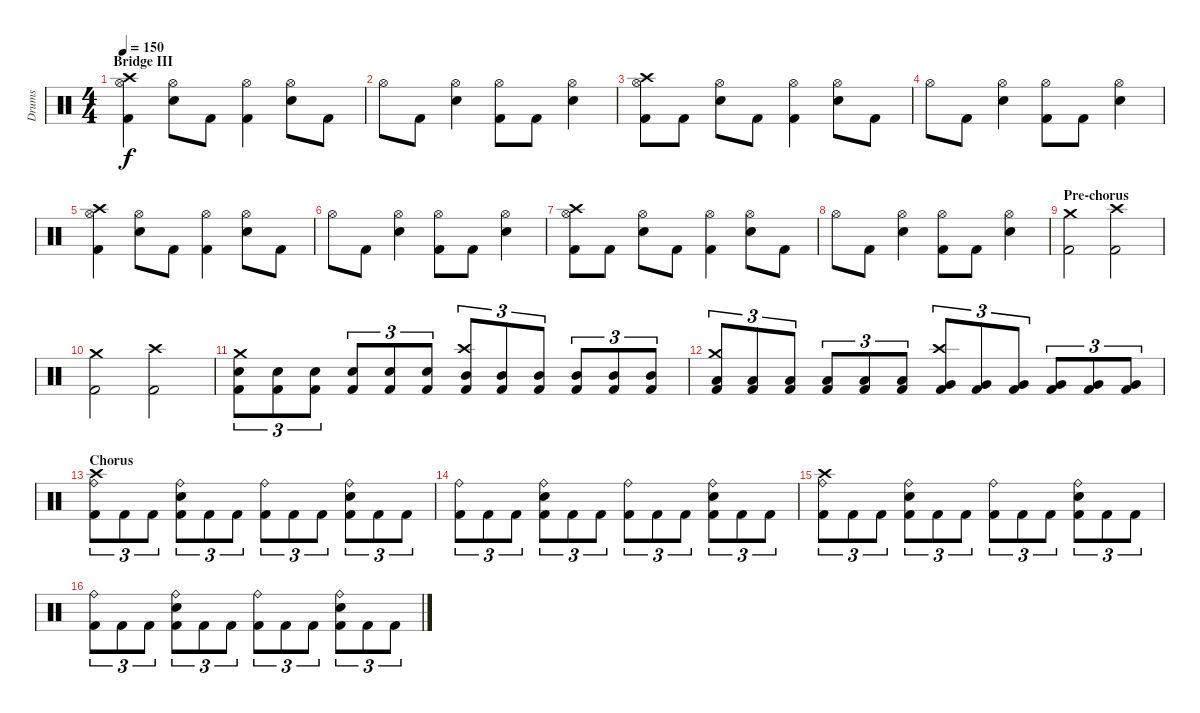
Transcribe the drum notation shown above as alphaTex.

\track ("Drums" "Drums") {instrument percussion}
\staff {score}
\articulation defaults
\ts (4 4)
\section ("" "Bridge III")
\tempo 150
\clef neutral
\ks c
("Hi-Hat (open)" "Kick (hit) 2" "Crash high (hit)").4{dy f} ("Hi-Hat (open)" "Electric Snare (hit)").8 "Kick (hit) 2".8 ("Hi-Hat (open)" "Kick (hit) 2").4 ("Hi-Hat (open)" "Electric Snare (hit)").8 "Kick (hit) 2".8 |
"Hi-Hat (open)".8 "Kick (hit) 2".8 ("Hi-Hat (open)" "Electric Snare (hit)").4 ("Hi-Hat (open)" "Kick (hit) 2").8 "Kick (hit) 2".8 ("Hi-Hat (open)" "Electric Snare (hit)").4 |
("Hi-Hat (open)" "Kick (hit) 2" "Crash high (hit)").8 "Kick (hit) 2".8 ("Hi-Hat (open)" "Electric Snare (hit)").8 "Kick (hit) 2".8 ("Hi-Hat (open)" "Kick (hit) 2").4 ("Hi-Hat (open)" "Electric Snare (hit)").8 "Kick (hit) 2".8 |
"Hi-Hat (open)".8 "Kick (hit) 2".8 ("Hi-Hat (open)" "Electric Snare (hit)").4 ("Hi-Hat (open)" "Kick (hit) 2").8 "Kick (hit) 2".8 ("Hi-Hat (open)" "Electric Snare (hit)").4 |
("Hi-Hat (open)" "Kick (hit) 2" "Crash high (hit)").4 ("Hi-Hat (open)" "Electric Snare (hit)").8 "Kick (hit) 2".8 ("Hi-Hat (open)" "Kick (hit) 2").4 ("Hi-Hat (open)" "Electric Snare (hit)").8 "Kick (hit) 2".8 |
"Hi-Hat (open)".8 "Kick (hit) 2".8 ("Hi-Hat (open)" "Electric Snare (hit)").4 ("Hi-Hat (open)" "Kick (hit) 2").8 "Kick (hit) 2".8 ("Hi-Hat (open)" "Electric Snare (hit)").4 |
("Hi-Hat (open)" "Kick (hit) 2" "Crash high (hit)").8 "Kick (hit) 2".8 ("Hi-Hat (open)" "Electric Snare (hit)").8 "Kick (hit) 2".8 ("Hi-Hat (open)" "Kick (hit) 2").4 ("Hi-Hat (open)" "Electric Snare (hit)").8 "Kick (hit) 2".8 |
"Hi-Hat (open)".8 "Kick (hit) 2".8 ("Hi-Hat (open)" "Electric Snare (hit)").4 ("Hi-Hat (open)" "Kick (hit) 2").8 "Kick (hit) 2".8 ("Hi-Hat (open)" "Electric Snare (hit)").4 |
\section ("" "Pre-chorus")
("Kick (hit) 2" "Crash medium (hit)").2 ("Kick (hit) 2" "Crash high (hit)").2 |
("Kick (hit) 2" "Crash medium (hit)").2 ("Kick (hit) 2" "Crash high (hit)").2 |
("Electric Snare (hit)" "Crash medium (hit)" "Kick (hit) 2").8{tu (3 2)} ("Electric Snare (hit)" "Kick (hit) 2").8{tu (3 2)} ("Electric Snare (hit)" "Kick (hit) 2").8{tu (3 2)} ("Electric Snare (hit)" "Kick (hit) 2").8{tu (3 2)} ("Electric Snare (hit)" "Kick (hit) 2").8{tu (3 2)} ("Electric Snare (hit)" "Kick (hit) 2").8{tu (3 2)} ("Mid Tom (hit)" "Crash high (hit)" "Kick (hit) 2").8{tu (3 2)} ("Mid Tom (hit)" "Kick (hit) 2").8{tu (3 2)} ("Mid Tom (hit)" "Kick (hit) 2").8{tu (3 2)} ("Mid Tom (hit)" "Kick (hit) 2").8{tu (3 2)} ("Mid Tom (hit)" "Kick (hit) 2").8{tu (3 2)} ("Mid Tom (hit)" "Kick (hit) 2").8{tu (3 2)} |
("Low Tom (hit)" "Crash medium (hit)" "Kick (hit) 2").8{tu (3 2)} ("Low Tom (hit)" "Kick (hit) 2").8{tu (3 2)} ("Low Tom (hit)" "Kick (hit) 2").8{tu (3 2)} ("Low Tom (hit)" "Kick (hit) 2").8{tu (3 2)} ("Low Tom (hit)" "Kick (hit) 2").8{tu (3 2)} ("Low Tom (hit)" "Kick (hit) 2").8{tu (3 2)} ("Very Low Tom (hit)" "Crash high (hit)" "Kick (hit) 2").8{tu (3 2)} ("Very Low Tom (hit)" "Kick (hit) 2").8{tu (3 2)} ("Very Low Tom (hit)" "Kick (hit) 2").8{tu (3 2)} ("Very Low Tom (hit)" "Kick (hit) 2").8{tu (3 2)} ("Very Low Tom (hit)" "Kick (hit) 2").8{tu (3 2)} ("Very Low Tom (hit)" "Kick (hit) 2").8{tu (3 2)} |
\section ("" "Chorus")
("Kick (hit) 2" "Crash high (hit)" "Ride (bell)").8{tu (3 2)} "Kick (hit) 2".8{tu (3 2)} "Kick (hit) 2".8{tu (3 2)} ("Kick (hit) 2" "Electric Snare (hit)" "Ride (bell)").8{tu (3 2)} "Kick (hit) 2".8{tu (3 2)} "Kick (hit) 2".8{tu (3 2)} ("Kick (hit) 2" "Ride (bell)").8{tu (3 2)} "Kick (hit) 2".8{tu (3 2)} "Kick (hit) 2".8{tu (3 2)} ("Kick (hit) 2" "Electric Snare (hit)" "Ride (bell)").8{tu (3 2)} "Kick (hit) 2".8{tu (3 2)} "Kick (hit) 2".8{tu (3 2)} |
("Kick (hit) 2" "Ride (bell)").8{tu (3 2)} "Kick (hit) 2".8{tu (3 2)} "Kick (hit) 2".8{tu (3 2)} ("Kick (hit) 2" "Electric Snare (hit)" "Ride (bell)").8{tu (3 2)} "Kick (hit) 2".8{tu (3 2)} "Kick (hit) 2".8{tu (3 2)} ("Kick (hit) 2" "Ride (bell)").8{tu (3 2)} "Kick (hit) 2".8{tu (3 2)} "Kick (hit) 2".8{tu (3 2)} ("Kick (hit) 2" "Electric Snare (hit)" "Ride (bell)").8{tu (3 2)} "Kick (hit) 2".8{tu (3 2)} "Kick (hit) 2".8{tu (3 2)} |
("Kick (hit) 2" "Crash high (hit)" "Ride (bell)").8{tu (3 2)} "Kick (hit) 2".8{tu (3 2)} "Kick (hit) 2".8{tu (3 2)} ("Kick (hit) 2" "Electric Snare (hit)" "Ride (bell)").8{tu (3 2)} "Kick (hit) 2".8{tu (3 2)} "Kick (hit) 2".8{tu (3 2)} ("Kick (hit) 2" "Ride (bell)").8{tu (3 2)} "Kick (hit) 2".8{tu (3 2)} "Kick (hit) 2".8{tu (3 2)} ("Kick (hit) 2" "Electric Snare (hit)" "Ride (bell)").8{tu (3 2)} "Kick (hit) 2".8{tu (3 2)} "Kick (hit) 2".8{tu (3 2)} |
("Kick (hit) 2" "Ride (bell)").8{tu (3 2)} "Kick (hit) 2".8{tu (3 2)} "Kick (hit) 2".8{tu (3 2)} ("Kick (hit) 2" "Electric Snare (hit)" "Ride (bell)").8{tu (3 2)} "Kick (hit) 2".8{tu (3 2)} "Kick (hit) 2".8{tu (3 2)} ("Kick (hit) 2" "Ride (bell)").8{tu (3 2)} "Kick (hit) 2".8{tu (3 2)} "Kick (hit) 2".8{tu (3 2)} ("Kick (hit) 2" "Electric Snare (hit)" "Ride (bell)").8{tu (3 2)} "Kick (hit) 2".8{tu (3 2)} "Kick (hit) 2".8{tu (3 2)}
